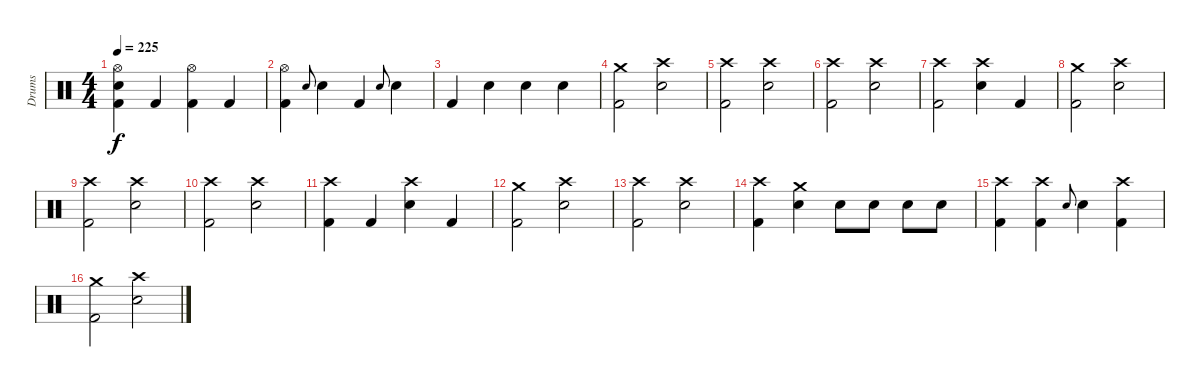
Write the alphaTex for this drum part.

\track ("Drums" "Drums") {instrument percussion}
\staff {score}
\articulation defaults
\ts (4 4)
\tempo 225
\clef neutral
\ks c
("Hi-Hat (open)" "Electric Snare (hit)" "Kick (hit) 2").4{dy f} "Kick (hit) 2".4 ("Hi-Hat (open)" "Kick (hit) 2").4 "Kick (hit) 2".4 |
("Hi-Hat (open)" "Kick (hit) 2").4 "Electric Snare (hit)".8{gr onbeat} "Electric Snare (hit)".4 "Kick (hit) 2".4 "Electric Snare (hit)".8{gr onbeat} "Electric Snare (hit)".4 |
"Kick (hit) 2".4 "Electric Snare (hit)".4 "Electric Snare (hit)".4 "Electric Snare (hit)".4 |
("Crash medium (hit)" "Kick (hit) 2").2 ("Crash high (hit)" "Electric Snare (hit)").2 |
("Crash high (hit)" "Kick (hit) 2").2 ("Crash high (hit)" "Electric Snare (hit)").2 |
("Crash high (hit)" "Kick (hit) 2").2 ("Crash high (hit)" "Electric Snare (hit)").2 |
("Crash high (hit)" "Kick (hit) 2").2 ("Crash high (hit)" "Electric Snare (hit)").4 "Kick (hit) 2".4 |
("Crash medium (hit)" "Kick (hit) 2").2 ("Crash high (hit)" "Electric Snare (hit)").2 |
("Crash high (hit)" "Kick (hit) 2").2 ("Crash high (hit)" "Electric Snare (hit)").2 |
("Crash high (hit)" "Kick (hit) 2").2 ("Crash high (hit)" "Electric Snare (hit)").2 |
("Crash high (hit)" "Kick (hit) 2").4 "Kick (hit) 2".4 ("Crash high (hit)" "Electric Snare (hit)").4 "Kick (hit) 2".4 |
("Crash medium (hit)" "Kick (hit) 2").2 ("Crash high (hit)" "Electric Snare (hit)").2 |
("Crash high (hit)" "Kick (hit) 2").2 ("Crash high (hit)" "Electric Snare (hit)").2 |
("Kick (hit) 2" "Crash high (hit)").4 ("Crash medium (hit)" "Electric Snare (hit)").4 "Electric Snare (hit)".8 "Electric Snare (hit)".8 "Electric Snare (hit)".8 "Electric Snare (hit)".8 |
("Kick (hit) 2" "Crash high (hit)").4 ("Kick (hit) 2" "Crash high (hit)").4 "Electric Snare (hit)".8{gr onbeat} "Electric Snare (hit)".4 ("Kick (hit) 2" "Crash high (hit)").4 |
("Crash medium (hit)" "Kick (hit) 2").2 ("Crash high (hit)" "Electric Snare (hit)").2
